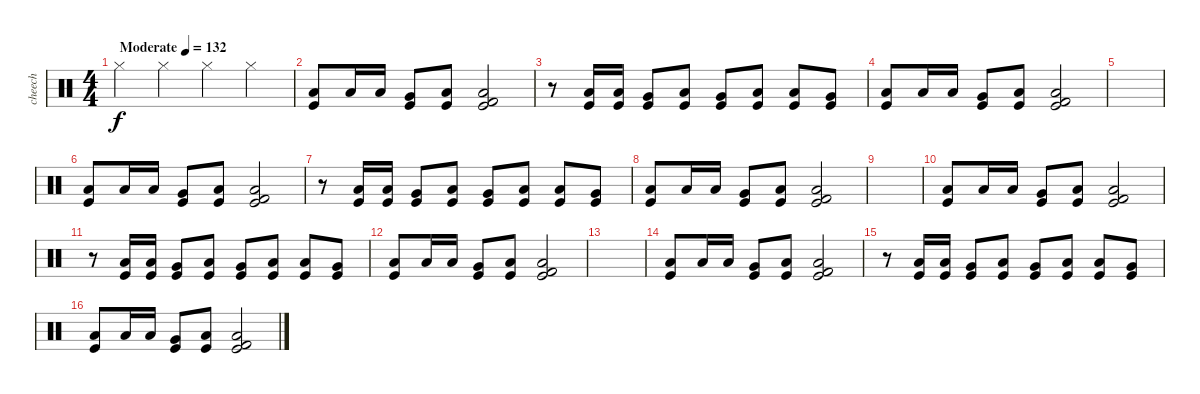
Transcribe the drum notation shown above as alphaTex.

\track ("cheech" "cheech") {instrument percussion}
\staff {score}
\articulation defaults
\ts (4 4)
\tempo (132 "Moderate")
\clef neutral
\ks c "Hi-Hat (closed)".4{dy f} "Hi-Hat (closed)".4 "Hi-Hat (closed)".4 "Hi-Hat (closed)".4
|
("Low Floor Tom (hit)" "Kick (hit)").8 "Low Floor Tom (hit)".16 "Low Floor Tom (hit)".16 ("Very Low Tom (hit)" "Kick (hit)").8 ("Low Floor Tom (hit)" "Kick (hit)").8 ("Low Floor Tom (hit)" "Kick (hit) 2" "Kick (hit)").2 |
r.8 ("Low Floor Tom (hit)" "Kick (hit)").16 ("Low Floor Tom (hit)" "Kick (hit)").16 ("Very Low Tom (hit)" "Kick (hit)").8 ("Low Floor Tom (hit)" "Kick (hit)").8 ("Very Low Tom (hit)" "Kick (hit)").8 ("Low Floor Tom (hit)" "Kick (hit)").8 ("Low Floor Tom (hit)" "Kick (hit)").8 ("Very Low Tom (hit)" "Kick (hit)").8 |
("Low Floor Tom (hit)" "Kick (hit)").8 "Low Floor Tom (hit)".16 "Low Floor Tom (hit)".16 ("Very Low Tom (hit)" "Kick (hit)").8 ("Low Floor Tom (hit)" "Kick (hit)").8 ("Low Floor Tom (hit)" "Kick (hit) 2" "Kick (hit)").2 |
|
("Low Floor Tom (hit)" "Kick (hit)").8 "Low Floor Tom (hit)".16 "Low Floor Tom (hit)".16 ("Very Low Tom (hit)" "Kick (hit)").8 ("Low Floor Tom (hit)" "Kick (hit)").8 ("Low Floor Tom (hit)" "Kick (hit) 2" "Kick (hit)").2 |
r.8 ("Low Floor Tom (hit)" "Kick (hit)").16 ("Low Floor Tom (hit)" "Kick (hit)").16 ("Very Low Tom (hit)" "Kick (hit)").8 ("Low Floor Tom (hit)" "Kick (hit)").8 ("Very Low Tom (hit)" "Kick (hit)").8 ("Low Floor Tom (hit)" "Kick (hit)").8 ("Low Floor Tom (hit)" "Kick (hit)").8 ("Very Low Tom (hit)" "Kick (hit)").8 |
("Low Floor Tom (hit)" "Kick (hit)").8 "Low Floor Tom (hit)".16 "Low Floor Tom (hit)".16 ("Very Low Tom (hit)" "Kick (hit)").8 ("Low Floor Tom (hit)" "Kick (hit)").8 ("Low Floor Tom (hit)" "Kick (hit) 2" "Kick (hit)").2 |
|
("Low Floor Tom (hit)" "Kick (hit)").8 "Low Floor Tom (hit)".16 "Low Floor Tom (hit)".16 ("Very Low Tom (hit)" "Kick (hit)").8 ("Low Floor Tom (hit)" "Kick (hit)").8 ("Low Floor Tom (hit)" "Kick (hit) 2" "Kick (hit)").2 |
r.8 ("Low Floor Tom (hit)" "Kick (hit)").16 ("Low Floor Tom (hit)" "Kick (hit)").16 ("Very Low Tom (hit)" "Kick (hit)").8 ("Low Floor Tom (hit)" "Kick (hit)").8 ("Very Low Tom (hit)" "Kick (hit)").8 ("Low Floor Tom (hit)" "Kick (hit)").8 ("Low Floor Tom (hit)" "Kick (hit)").8 ("Very Low Tom (hit)" "Kick (hit)").8 |
("Low Floor Tom (hit)" "Kick (hit)").8 "Low Floor Tom (hit)".16 "Low Floor Tom (hit)".16 ("Very Low Tom (hit)" "Kick (hit)").8 ("Low Floor Tom (hit)" "Kick (hit)").8 ("Low Floor Tom (hit)" "Kick (hit) 2" "Kick (hit)").2 |
|
("Low Floor Tom (hit)" "Kick (hit)").8 "Low Floor Tom (hit)".16 "Low Floor Tom (hit)".16 ("Very Low Tom (hit)" "Kick (hit)").8 ("Low Floor Tom (hit)" "Kick (hit)").8 ("Low Floor Tom (hit)" "Kick (hit) 2" "Kick (hit)").2 |
r.8 ("Low Floor Tom (hit)" "Kick (hit)").16 ("Low Floor Tom (hit)" "Kick (hit)").16 ("Very Low Tom (hit)" "Kick (hit)").8 ("Low Floor Tom (hit)" "Kick (hit)").8 ("Very Low Tom (hit)" "Kick (hit)").8 ("Low Floor Tom (hit)" "Kick (hit)").8 ("Low Floor Tom (hit)" "Kick (hit)").8 ("Very Low Tom (hit)" "Kick (hit)").8 |
("Low Floor Tom (hit)" "Kick (hit)").8 "Low Floor Tom (hit)".16 "Low Floor Tom (hit)".16 ("Very Low Tom (hit)" "Kick (hit)").8 ("Low Floor Tom (hit)" "Kick (hit)").8 ("Low Floor Tom (hit)" "Kick (hit) 2" "Kick (hit)").2
